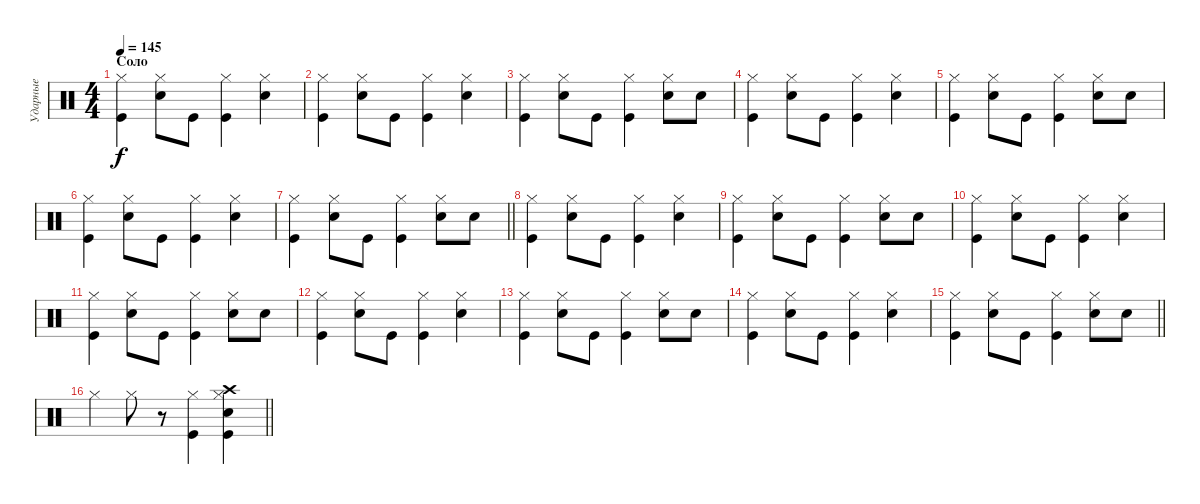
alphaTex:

\track ("Ударные" "Ударные") {instrument percussion bank 125}
\staff {score}
\articulation defaults
\ts (4 4)
\section ("" "Соло")
\tempo 145
\clef neutral
\ks c
("Hi-Hat (closed)" "Kick (hit)").4{dy f} ("Hi-Hat (closed)" "Snare (hit) 2").8 "Kick (hit)".8 ("Hi-Hat (closed)" "Kick (hit)").4 ("Hi-Hat (closed)" "Snare (hit) 2").4 |
("Hi-Hat (closed)" "Kick (hit)").4 ("Hi-Hat (closed)" "Snare (hit) 2").8 "Kick (hit)".8 ("Hi-Hat (closed)" "Kick (hit)").4 ("Hi-Hat (closed)" "Snare (hit) 2").4 |
("Hi-Hat (closed)" "Kick (hit)").4 ("Hi-Hat (closed)" "Snare (hit) 2").8 "Kick (hit)".8 ("Hi-Hat (closed)" "Kick (hit)").4 ("Hi-Hat (closed)" "Snare (hit) 2").8 "Snare (hit) 2".8 |
("Hi-Hat (closed)" "Kick (hit)").4 ("Hi-Hat (closed)" "Snare (hit) 2").8 "Kick (hit)".8 ("Hi-Hat (closed)" "Kick (hit)").4 ("Hi-Hat (closed)" "Snare (hit) 2").4 |
("Hi-Hat (closed)" "Kick (hit)").4 ("Hi-Hat (closed)" "Snare (hit) 2").8 "Kick (hit)".8 ("Hi-Hat (closed)" "Kick (hit)").4 ("Hi-Hat (closed)" "Snare (hit) 2").8 "Snare (hit) 2".8 |
("Hi-Hat (closed)" "Kick (hit)").4 ("Hi-Hat (closed)" "Snare (hit) 2").8 "Kick (hit)".8 ("Hi-Hat (closed)" "Kick (hit)").4 ("Hi-Hat (closed)" "Snare (hit) 2").4 |
\barLineRight lightlight
("Hi-Hat (closed)" "Kick (hit)").4 ("Hi-Hat (closed)" "Snare (hit) 2").8 "Kick (hit)".8 ("Hi-Hat (closed)" "Kick (hit)").4 ("Hi-Hat (closed)" "Snare (hit) 2").8 "Snare (hit) 2".8 |
("Hi-Hat (closed)" "Kick (hit)").4 ("Hi-Hat (closed)" "Snare (hit) 2").8 "Kick (hit)".8 ("Hi-Hat (closed)" "Kick (hit)").4 ("Hi-Hat (closed)" "Snare (hit) 2").4 |
("Hi-Hat (closed)" "Kick (hit)").4 ("Hi-Hat (closed)" "Snare (hit) 2").8 "Kick (hit)".8 ("Hi-Hat (closed)" "Kick (hit)").4 ("Hi-Hat (closed)" "Snare (hit) 2").8 "Snare (hit) 2".8 |
("Hi-Hat (closed)" "Kick (hit)").4 ("Hi-Hat (closed)" "Snare (hit) 2").8 "Kick (hit)".8 ("Hi-Hat (closed)" "Kick (hit)").4 ("Hi-Hat (closed)" "Snare (hit) 2").4 |
("Hi-Hat (closed)" "Kick (hit)").4 ("Hi-Hat (closed)" "Snare (hit) 2").8 "Kick (hit)".8 ("Hi-Hat (closed)" "Kick (hit)").4 ("Hi-Hat (closed)" "Snare (hit) 2").8 "Snare (hit) 2".8 |
("Hi-Hat (closed)" "Kick (hit)").4 ("Hi-Hat (closed)" "Snare (hit) 2").8 "Kick (hit)".8 ("Hi-Hat (closed)" "Kick (hit)").4 ("Hi-Hat (closed)" "Snare (hit) 2").4 |
("Hi-Hat (closed)" "Kick (hit)").4 ("Hi-Hat (closed)" "Snare (hit) 2").8 "Kick (hit)".8 ("Hi-Hat (closed)" "Kick (hit)").4 ("Hi-Hat (closed)" "Snare (hit) 2").8 "Snare (hit) 2".8 |
("Hi-Hat (closed)" "Kick (hit)").4 ("Hi-Hat (closed)" "Snare (hit) 2").8 "Kick (hit)".8 ("Hi-Hat (closed)" "Kick (hit)").4 ("Hi-Hat (closed)" "Snare (hit) 2").4 |
\barLineRight lightlight
("Hi-Hat (closed)" "Kick (hit)").4 ("Hi-Hat (closed)" "Snare (hit) 2").8 "Kick (hit)".8 ("Hi-Hat (closed)" "Kick (hit)").4 ("Hi-Hat (closed)" "Snare (hit) 2").8 "Snare (hit) 2".8 |
\barLineRight lightlight "Hi-Hat (closed)".4 "Hi-Hat (closed)".8
r.8 ("Hi-Hat (closed)" "Kick (hit)").4 ("Hi-Hat (closed)" "Crash high (hit)" "Snare (hit) 2" "Kick (hit)").4
